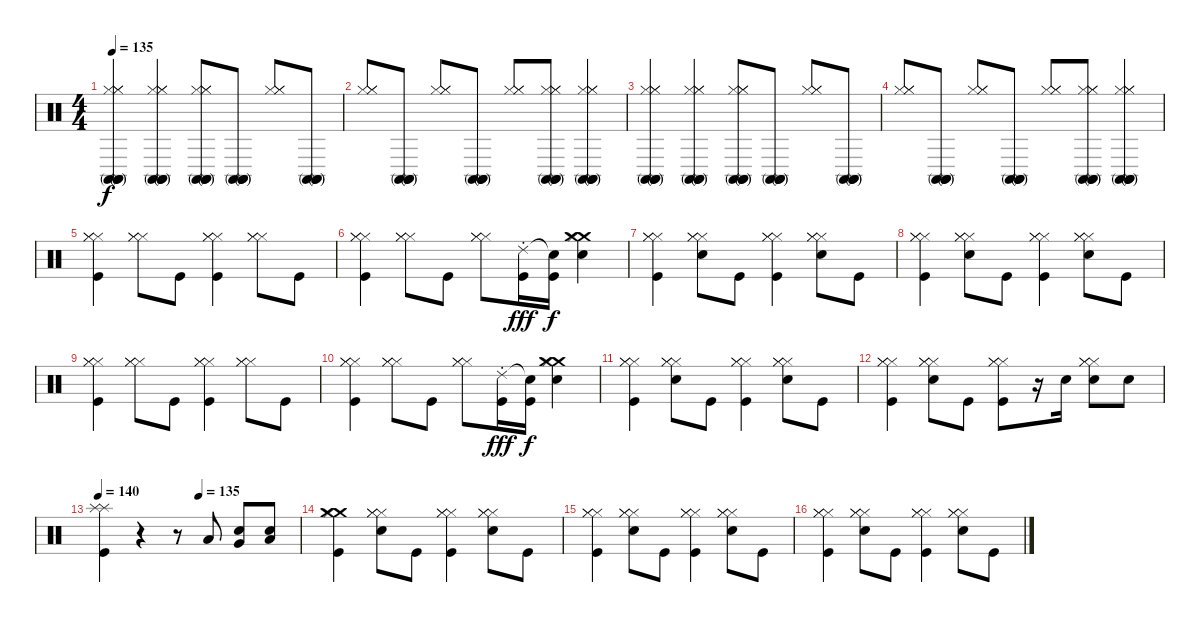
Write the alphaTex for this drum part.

\track "" {instrument percussion}
\staff {score}
\articulation defaults
\ts (4 4)
\tempo 135
\clef neutral
\ks c
("Hi-Hat (closed)" "Hi-Hat (closed)" "Hi-Hat (closed)" "Conga high (mute)" "Conga high (mute)" "Conga high (mute)").4{dy f} ("Hi-Hat (closed)" "Hi-Hat (closed)" "Hi-Hat (closed)" "Conga high (mute)" "Conga high (mute)" "Conga high (mute)").4 ("Hi-Hat (closed)" "Hi-Hat (closed)" "Hi-Hat (closed)" "Conga high (mute)" "Conga high (mute)" "Conga high (mute)").8 ("Conga high (mute)" "Conga high (mute)" "Conga high (mute)").8 ("Hi-Hat (closed)" "Hi-Hat (closed)" "Hi-Hat (closed)").8 ("Conga high (mute)" "Conga high (mute)" "Conga high (mute)").8 |
("Hi-Hat (closed)" "Hi-Hat (closed)" "Hi-Hat (closed)").8 ("Conga high (mute)" "Conga high (mute)" "Conga high (mute)").8 ("Hi-Hat (closed)" "Hi-Hat (closed)" "Hi-Hat (closed)").8 ("Conga high (mute)" "Conga high (mute)" "Conga high (mute)").8 ("Hi-Hat (closed)" "Hi-Hat (closed)" "Hi-Hat (closed)").8 ("Hi-Hat (closed)" "Hi-Hat (closed)" "Hi-Hat (closed)" "Conga high (mute)" "Conga high (mute)" "Conga high (mute)").8 ("Hi-Hat (closed)" "Hi-Hat (closed)" "Hi-Hat (closed)" "Conga high (mute)" "Conga high (mute)" "Conga high (mute)").4 |
("Hi-Hat (closed)" "Hi-Hat (closed)" "Hi-Hat (closed)" "Conga high (mute)" "Conga high (mute)" "Conga high (mute)").4 ("Hi-Hat (closed)" "Hi-Hat (closed)" "Hi-Hat (closed)" "Conga high (mute)" "Conga high (mute)" "Conga high (mute)").4 ("Hi-Hat (closed)" "Hi-Hat (closed)" "Hi-Hat (closed)" "Conga high (mute)" "Conga high (mute)" "Conga high (mute)").8 ("Conga high (mute)" "Conga high (mute)" "Conga high (mute)").8 ("Hi-Hat (closed)" "Hi-Hat (closed)" "Hi-Hat (closed)").8 ("Conga high (mute)" "Conga high (mute)" "Conga high (mute)").8 |
("Hi-Hat (closed)" "Hi-Hat (closed)" "Hi-Hat (closed)").8 ("Conga high (mute)" "Conga high (mute)" "Conga high (mute)").8 ("Hi-Hat (closed)" "Hi-Hat (closed)" "Hi-Hat (closed)").8 ("Conga high (mute)" "Conga high (mute)" "Conga high (mute)").8 ("Hi-Hat (closed)" "Hi-Hat (closed)" "Hi-Hat (closed)").8 ("Hi-Hat (closed)" "Hi-Hat (closed)" "Hi-Hat (closed)" "Conga high (mute)" "Conga high (mute)" "Conga high (mute)").8 ("Hi-Hat (closed)" "Hi-Hat (closed)" "Hi-Hat (closed)" "Conga high (mute)" "Conga high (mute)" "Conga high (mute)").4 |
("Hi-Hat (closed)" "Hi-Hat (closed)" "Hi-Hat (closed)" "Kick (hit)").4 ("Hi-Hat (closed)" "Hi-Hat (closed)" "Hi-Hat (closed)").8 "Kick (hit)".8 ("Hi-Hat (closed)" "Hi-Hat (closed)" "Hi-Hat (closed)" "Kick (hit)").4 ("Hi-Hat (closed)" "Hi-Hat (closed)" "Hi-Hat (closed)").8 "Kick (hit)".8 |
("Hi-Hat (closed)" "Hi-Hat (closed)" "Hi-Hat (closed)" "Kick (hit)").4 ("Hi-Hat (closed)" "Hi-Hat (closed)" "Hi-Hat (closed)").8 "Kick (hit)".8 ("Hi-Hat (closed)" "Hi-Hat (closed)" "Hi-Hat (closed)").8 ("Ride (choke) 2" "Kick (hit)").16{dy fff} ("Snare (hit)"{t} "Kick (hit)").16{dy f} ("Crash medium (hit)" "Crash medium (hit)" "Hi-Hat (closed)" "Metronome (bell)").4 |
("Hi-Hat (closed)" "Hi-Hat (closed)" "Hi-Hat (closed)" "Kick (hit)").4 ("Hi-Hat (closed)" "Hi-Hat (closed)" "Hi-Hat (closed)" "Metronome (bell)").8 "Kick (hit)".8 ("Hi-Hat (closed)" "Hi-Hat (closed)" "Hi-Hat (closed)" "Kick (hit)").4 ("Hi-Hat (closed)" "Hi-Hat (closed)" "Hi-Hat (closed)" "Metronome (bell)").8 "Kick (hit)".8 |
("Hi-Hat (closed)" "Hi-Hat (closed)" "Hi-Hat (closed)" "Kick (hit)").4 ("Hi-Hat (closed)" "Hi-Hat (closed)" "Hi-Hat (closed)" "Metronome (bell)").8 "Kick (hit)".8 ("Hi-Hat (closed)" "Hi-Hat (closed)" "Hi-Hat (closed)" "Kick (hit)").4 ("Hi-Hat (closed)" "Hi-Hat (closed)" "Hi-Hat (closed)" "Metronome (bell)").8 "Kick (hit)".8 |
("Hi-Hat (closed)" "Hi-Hat (closed)" "Hi-Hat (closed)" "Kick (hit)").4 ("Hi-Hat (closed)" "Hi-Hat (closed)" "Hi-Hat (closed)").8 "Kick (hit)".8 ("Hi-Hat (closed)" "Hi-Hat (closed)" "Hi-Hat (closed)" "Kick (hit)").4 ("Hi-Hat (closed)" "Hi-Hat (closed)" "Hi-Hat (closed)").8 "Kick (hit)".8 |
("Hi-Hat (closed)" "Hi-Hat (closed)" "Hi-Hat (closed)" "Kick (hit)").4 ("Hi-Hat (closed)" "Hi-Hat (closed)" "Hi-Hat (closed)").8 "Kick (hit)".8 ("Hi-Hat (closed)" "Hi-Hat (closed)" "Hi-Hat (closed)").8 ("Ride (choke) 2" "Kick (hit)").16{dy fff} ("Snare (hit)"{t} "Kick (hit)").16{dy f} ("Crash medium (hit)" "Crash medium (hit)" "Hi-Hat (closed)" "Metronome (bell)").4 |
("Hi-Hat (closed)" "Hi-Hat (closed)" "Hi-Hat (closed)" "Kick (hit)").4 ("Hi-Hat (closed)" "Hi-Hat (closed)" "Hi-Hat (closed)" "Metronome (bell)").8 "Kick (hit)".8 ("Hi-Hat (closed)" "Hi-Hat (closed)" "Hi-Hat (closed)" "Kick (hit)").4 ("Hi-Hat (closed)" "Hi-Hat (closed)" "Hi-Hat (closed)" "Metronome (bell)").8 "Kick (hit)".8 |
("Hi-Hat (closed)" "Hi-Hat (closed)" "Hi-Hat (closed)" "Kick (hit)").4 ("Hi-Hat (closed)" "Hi-Hat (closed)" "Hi-Hat (closed)" "Metronome (bell)").8 "Kick (hit)".8 ("Hi-Hat (closed)" "Hi-Hat (closed)" "Hi-Hat (closed)" "Kick (hit)").8 r.16 "Metronome (bell)".16 ("Hi-Hat (closed)" "Hi-Hat (closed)" "Hi-Hat (closed)" "Metronome (bell)").8 "Metronome (bell)".8 |
\tempo 140
\tempo (135 0.5)
("Splash (hit)" "Splash (hit)" "Kick (hit)").4 r.4 r.8 "Low Tom (hit)".8 ("Metronome (bell)" "Very Low Tom (hit)").8 ("Metronome (bell)" "Low Floor Tom (hit)").8 |
("Crash medium (hit)" "Crash medium (hit)" "Hi-Hat (closed)" "Kick (hit)").4 ("Hi-Hat (closed)" "Hi-Hat (closed)" "Hi-Hat (closed)" "Metronome (bell)").8 "Kick (hit)".8 ("Hi-Hat (closed)" "Hi-Hat (closed)" "Hi-Hat (closed)" "Kick (hit)").4 ("Hi-Hat (closed)" "Hi-Hat (closed)" "Hi-Hat (closed)" "Metronome (bell)").8 "Kick (hit)".8 |
("Hi-Hat (closed)" "Hi-Hat (closed)" "Hi-Hat (closed)" "Kick (hit)").4 ("Hi-Hat (closed)" "Hi-Hat (closed)" "Hi-Hat (closed)" "Metronome (bell)").8 "Kick (hit)".8 ("Hi-Hat (closed)" "Hi-Hat (closed)" "Hi-Hat (closed)" "Kick (hit)").4 ("Hi-Hat (closed)" "Hi-Hat (closed)" "Hi-Hat (closed)" "Metronome (bell)").8 "Kick (hit)".8 |
("Hi-Hat (closed)" "Hi-Hat (closed)" "Hi-Hat (closed)" "Kick (hit)").4 ("Hi-Hat (closed)" "Hi-Hat (closed)" "Hi-Hat (closed)" "Metronome (bell)").8 "Kick (hit)".8 ("Hi-Hat (closed)" "Hi-Hat (closed)" "Hi-Hat (closed)" "Kick (hit)").4 ("Hi-Hat (closed)" "Hi-Hat (closed)" "Hi-Hat (closed)" "Metronome (bell)").8 "Kick (hit)".8
